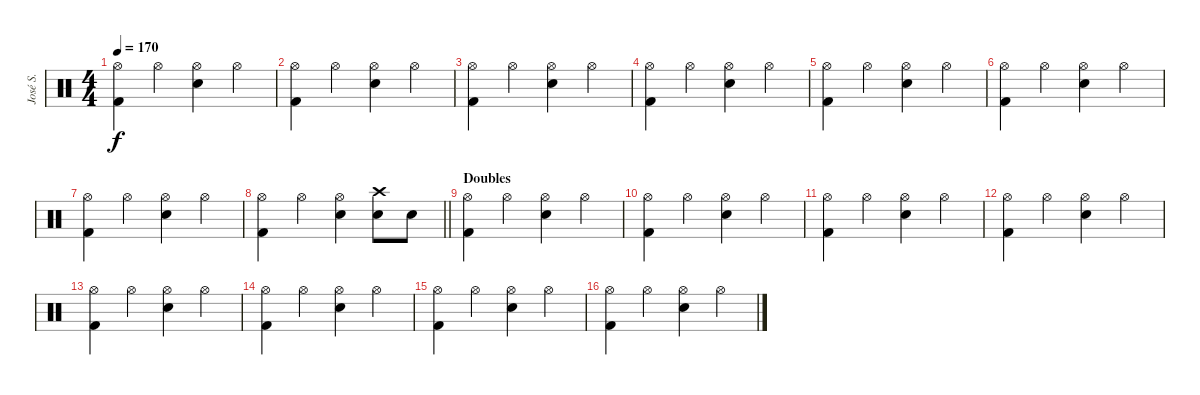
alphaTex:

\track ("José S." "José S.") {instrument percussion}
\staff {score}
\articulation defaults
\ts (4 4)
\tempo 170
\clef neutral
\ks c
("Hi-Hat (open)" "Kick (hit) 2").4{dy f} "Hi-Hat (open)".4 ("Hi-Hat (open)" "Electric Snare (hit)").4 "Hi-Hat (open)".4 |
("Hi-Hat (open)" "Kick (hit) 2").4 "Hi-Hat (open)".4 ("Hi-Hat (open)" "Electric Snare (hit)").4 "Hi-Hat (open)".4 |
("Hi-Hat (open)" "Kick (hit) 2").4 "Hi-Hat (open)".4 ("Hi-Hat (open)" "Electric Snare (hit)").4 "Hi-Hat (open)".4 |
("Hi-Hat (open)" "Kick (hit) 2").4 "Hi-Hat (open)".4 ("Hi-Hat (open)" "Electric Snare (hit)").4 "Hi-Hat (open)".4 |
("Hi-Hat (open)" "Kick (hit) 2").4 "Hi-Hat (open)".4 ("Hi-Hat (open)" "Electric Snare (hit)").4 "Hi-Hat (open)".4 |
("Hi-Hat (open)" "Kick (hit) 2").4 "Hi-Hat (open)".4 ("Hi-Hat (open)" "Electric Snare (hit)").4 "Hi-Hat (open)".4 |
("Hi-Hat (open)" "Kick (hit) 2").4 "Hi-Hat (open)".4 ("Hi-Hat (open)" "Electric Snare (hit)").4 "Hi-Hat (open)".4 |
\barLineRight lightlight
("Hi-Hat (open)" "Kick (hit) 2").4 "Hi-Hat (open)".4 ("Hi-Hat (open)" "Electric Snare (hit)").4 ("Crash high (hit)" "Electric Snare (hit)").8 "Electric Snare (hit)".8 |
\section ("" "Doubles")
("Hi-Hat (open)" "Kick (hit) 2").4 "Hi-Hat (open)".4 ("Hi-Hat (open)" "Electric Snare (hit)").4 "Hi-Hat (open)".4 |
("Hi-Hat (open)" "Kick (hit) 2").4 "Hi-Hat (open)".4 ("Hi-Hat (open)" "Electric Snare (hit)").4 "Hi-Hat (open)".4 |
("Hi-Hat (open)" "Kick (hit) 2").4 "Hi-Hat (open)".4 ("Hi-Hat (open)" "Electric Snare (hit)").4 "Hi-Hat (open)".4 |
("Hi-Hat (open)" "Kick (hit) 2").4 "Hi-Hat (open)".4 ("Hi-Hat (open)" "Electric Snare (hit)").4 "Hi-Hat (open)".4 |
("Hi-Hat (open)" "Kick (hit) 2").4 "Hi-Hat (open)".4 ("Hi-Hat (open)" "Electric Snare (hit)").4 "Hi-Hat (open)".4 |
("Hi-Hat (open)" "Kick (hit) 2").4 "Hi-Hat (open)".4 ("Hi-Hat (open)" "Electric Snare (hit)").4 "Hi-Hat (open)".4 |
("Hi-Hat (open)" "Kick (hit) 2").4 "Hi-Hat (open)".4 ("Hi-Hat (open)" "Electric Snare (hit)").4 "Hi-Hat (open)".4 |
("Hi-Hat (open)" "Kick (hit) 2").4 "Hi-Hat (open)".4 ("Hi-Hat (open)" "Electric Snare (hit)").4 "Hi-Hat (open)".4
